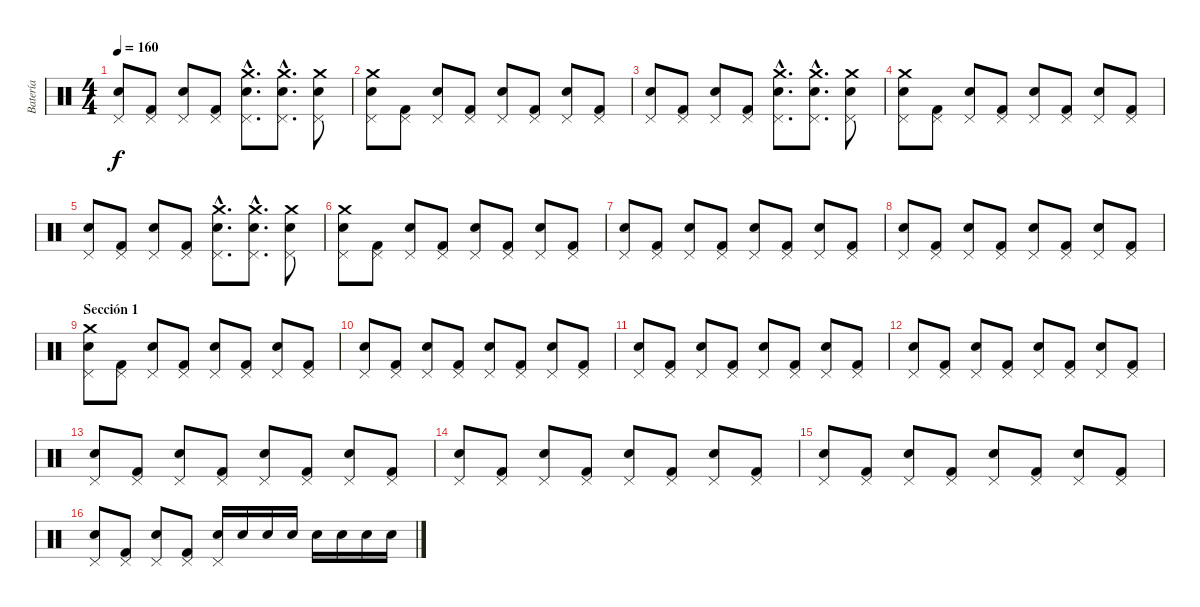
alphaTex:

\track ("Batería" "Batería") {instrument percussion}
\staff {score}
\articulation defaults
\ts (4 4)
\tempo 160
\clef neutral
\ks c
("Pedal Hi-Hat (hit)" "Electric Snare (hit)").8{dy f} ("Pedal Hi-Hat (hit)" "Kick (hit) 2").8 ("Pedal Hi-Hat (hit)" "Electric Snare (hit)").8 ("Pedal Hi-Hat (hit)" "Kick (hit) 2").8 ("Pedal Hi-Hat (hit)"{hac} "Crash medium (hit)"{hac} "Electric Snare (hit)"{hac}).8{d} ("Pedal Hi-Hat (hit)"{hac} "Crash medium (hit)"{hac} "Electric Snare (hit)"{hac}).8{d} ("Pedal Hi-Hat (hit)" "Crash medium (hit)" "Electric Snare (hit)").8 |
("Pedal Hi-Hat (hit)" "Crash medium (hit)" "Electric Snare (hit)").8 ("Pedal Hi-Hat (hit)" "Kick (hit) 2").8 ("Pedal Hi-Hat (hit)" "Electric Snare (hit)").8 ("Pedal Hi-Hat (hit)" "Kick (hit) 2").8 ("Pedal Hi-Hat (hit)" "Electric Snare (hit)").8 ("Pedal Hi-Hat (hit)" "Kick (hit) 2").8 ("Pedal Hi-Hat (hit)" "Electric Snare (hit)").8 ("Pedal Hi-Hat (hit)" "Kick (hit) 2").8 |
("Pedal Hi-Hat (hit)" "Electric Snare (hit)").8 ("Pedal Hi-Hat (hit)" "Kick (hit) 2").8 ("Pedal Hi-Hat (hit)" "Electric Snare (hit)").8 ("Pedal Hi-Hat (hit)" "Kick (hit) 2").8 ("Pedal Hi-Hat (hit)"{hac} "Crash medium (hit)"{hac} "Electric Snare (hit)"{hac}).8{d} ("Pedal Hi-Hat (hit)"{hac} "Crash medium (hit)"{hac} "Electric Snare (hit)"{hac}).8{d} ("Pedal Hi-Hat (hit)" "Crash medium (hit)" "Electric Snare (hit)").8 |
("Pedal Hi-Hat (hit)" "Crash medium (hit)" "Electric Snare (hit)").8 ("Pedal Hi-Hat (hit)" "Kick (hit) 2").8 ("Pedal Hi-Hat (hit)" "Electric Snare (hit)").8 ("Pedal Hi-Hat (hit)" "Kick (hit) 2").8 ("Pedal Hi-Hat (hit)" "Electric Snare (hit)").8 ("Pedal Hi-Hat (hit)" "Kick (hit) 2").8 ("Pedal Hi-Hat (hit)" "Electric Snare (hit)").8 ("Pedal Hi-Hat (hit)" "Kick (hit) 2").8 |
("Pedal Hi-Hat (hit)" "Electric Snare (hit)").8 ("Pedal Hi-Hat (hit)" "Kick (hit) 2").8 ("Pedal Hi-Hat (hit)" "Electric Snare (hit)").8 ("Pedal Hi-Hat (hit)" "Kick (hit) 2").8 ("Pedal Hi-Hat (hit)"{hac} "Crash medium (hit)"{hac} "Electric Snare (hit)"{hac}).8{d} ("Pedal Hi-Hat (hit)"{hac} "Crash medium (hit)"{hac} "Electric Snare (hit)"{hac}).8{d} ("Pedal Hi-Hat (hit)" "Crash medium (hit)" "Electric Snare (hit)").8 |
("Pedal Hi-Hat (hit)" "Crash medium (hit)" "Electric Snare (hit)").8 ("Pedal Hi-Hat (hit)" "Kick (hit) 2").8 ("Pedal Hi-Hat (hit)" "Electric Snare (hit)").8 ("Pedal Hi-Hat (hit)" "Kick (hit) 2").8 ("Pedal Hi-Hat (hit)" "Electric Snare (hit)").8 ("Pedal Hi-Hat (hit)" "Kick (hit) 2").8 ("Pedal Hi-Hat (hit)" "Electric Snare (hit)").8 ("Pedal Hi-Hat (hit)" "Kick (hit) 2").8 |
("Pedal Hi-Hat (hit)" "Electric Snare (hit)").8 ("Pedal Hi-Hat (hit)" "Kick (hit) 2").8 ("Pedal Hi-Hat (hit)" "Electric Snare (hit)").8 ("Pedal Hi-Hat (hit)" "Kick (hit) 2").8 ("Pedal Hi-Hat (hit)" "Electric Snare (hit)").8 ("Pedal Hi-Hat (hit)" "Kick (hit) 2").8 ("Pedal Hi-Hat (hit)" "Electric Snare (hit)").8 ("Pedal Hi-Hat (hit)" "Kick (hit) 2").8 |
("Pedal Hi-Hat (hit)" "Electric Snare (hit)").8 ("Pedal Hi-Hat (hit)" "Kick (hit) 2").8 ("Pedal Hi-Hat (hit)" "Electric Snare (hit)").8 ("Pedal Hi-Hat (hit)" "Kick (hit) 2").8 ("Pedal Hi-Hat (hit)" "Electric Snare (hit)").8 ("Pedal Hi-Hat (hit)" "Kick (hit) 2").8 ("Pedal Hi-Hat (hit)" "Electric Snare (hit)").8 ("Pedal Hi-Hat (hit)" "Kick (hit) 2").8 |
\section ("" "Sección 1")
("Pedal Hi-Hat (hit)" "Crash medium (hit)" "Electric Snare (hit)").8 ("Pedal Hi-Hat (hit)" "Kick (hit) 2").8 ("Pedal Hi-Hat (hit)" "Electric Snare (hit)").8 ("Pedal Hi-Hat (hit)" "Kick (hit) 2").8 ("Pedal Hi-Hat (hit)" "Electric Snare (hit)").8 ("Pedal Hi-Hat (hit)" "Kick (hit) 2").8 ("Pedal Hi-Hat (hit)" "Electric Snare (hit)").8 ("Pedal Hi-Hat (hit)" "Kick (hit) 2").8 |
("Pedal Hi-Hat (hit)" "Electric Snare (hit)").8 ("Pedal Hi-Hat (hit)" "Kick (hit) 2").8 ("Pedal Hi-Hat (hit)" "Electric Snare (hit)").8 ("Pedal Hi-Hat (hit)" "Kick (hit) 2").8 ("Pedal Hi-Hat (hit)" "Electric Snare (hit)").8 ("Pedal Hi-Hat (hit)" "Kick (hit) 2").8 ("Pedal Hi-Hat (hit)" "Electric Snare (hit)").8 ("Pedal Hi-Hat (hit)" "Kick (hit) 2").8 |
("Pedal Hi-Hat (hit)" "Electric Snare (hit)").8 ("Pedal Hi-Hat (hit)" "Kick (hit) 2").8 ("Pedal Hi-Hat (hit)" "Electric Snare (hit)").8 ("Pedal Hi-Hat (hit)" "Kick (hit) 2").8 ("Pedal Hi-Hat (hit)" "Electric Snare (hit)").8 ("Pedal Hi-Hat (hit)" "Kick (hit) 2").8 ("Pedal Hi-Hat (hit)" "Electric Snare (hit)").8 ("Pedal Hi-Hat (hit)" "Kick (hit) 2").8 |
("Pedal Hi-Hat (hit)" "Electric Snare (hit)").8 ("Pedal Hi-Hat (hit)" "Kick (hit) 2").8 ("Pedal Hi-Hat (hit)" "Electric Snare (hit)").8 ("Pedal Hi-Hat (hit)" "Kick (hit) 2").8 ("Pedal Hi-Hat (hit)" "Electric Snare (hit)").8 ("Pedal Hi-Hat (hit)" "Kick (hit) 2").8 ("Pedal Hi-Hat (hit)" "Electric Snare (hit)").8 ("Pedal Hi-Hat (hit)" "Kick (hit) 2").8 |
("Pedal Hi-Hat (hit)" "Electric Snare (hit)").8 ("Pedal Hi-Hat (hit)" "Kick (hit) 2").8 ("Pedal Hi-Hat (hit)" "Electric Snare (hit)").8 ("Pedal Hi-Hat (hit)" "Kick (hit) 2").8 ("Pedal Hi-Hat (hit)" "Electric Snare (hit)").8 ("Pedal Hi-Hat (hit)" "Kick (hit) 2").8 ("Pedal Hi-Hat (hit)" "Electric Snare (hit)").8 ("Pedal Hi-Hat (hit)" "Kick (hit) 2").8 |
("Pedal Hi-Hat (hit)" "Electric Snare (hit)").8 ("Pedal Hi-Hat (hit)" "Kick (hit) 2").8 ("Pedal Hi-Hat (hit)" "Electric Snare (hit)").8 ("Pedal Hi-Hat (hit)" "Kick (hit) 2").8 ("Pedal Hi-Hat (hit)" "Electric Snare (hit)").8 ("Pedal Hi-Hat (hit)" "Kick (hit) 2").8 ("Pedal Hi-Hat (hit)" "Electric Snare (hit)").8 ("Pedal Hi-Hat (hit)" "Kick (hit) 2").8 |
("Pedal Hi-Hat (hit)" "Electric Snare (hit)").8 ("Pedal Hi-Hat (hit)" "Kick (hit) 2").8 ("Pedal Hi-Hat (hit)" "Electric Snare (hit)").8 ("Pedal Hi-Hat (hit)" "Kick (hit) 2").8 ("Pedal Hi-Hat (hit)" "Electric Snare (hit)").8 ("Pedal Hi-Hat (hit)" "Kick (hit) 2").8 ("Pedal Hi-Hat (hit)" "Electric Snare (hit)").8 ("Pedal Hi-Hat (hit)" "Kick (hit) 2").8 |
("Pedal Hi-Hat (hit)" "Electric Snare (hit)").8 ("Pedal Hi-Hat (hit)" "Kick (hit) 2").8 ("Pedal Hi-Hat (hit)" "Electric Snare (hit)").8 ("Pedal Hi-Hat (hit)" "Kick (hit) 2").8 ("Pedal Hi-Hat (hit)" "Electric Snare (hit)").16 "Electric Snare (hit)".16 "Electric Snare (hit)".16 "Electric Snare (hit)".16 "Electric Snare (hit)".16 "Electric Snare (hit)".16 "Electric Snare (hit)".16 "Electric Snare (hit)".16
